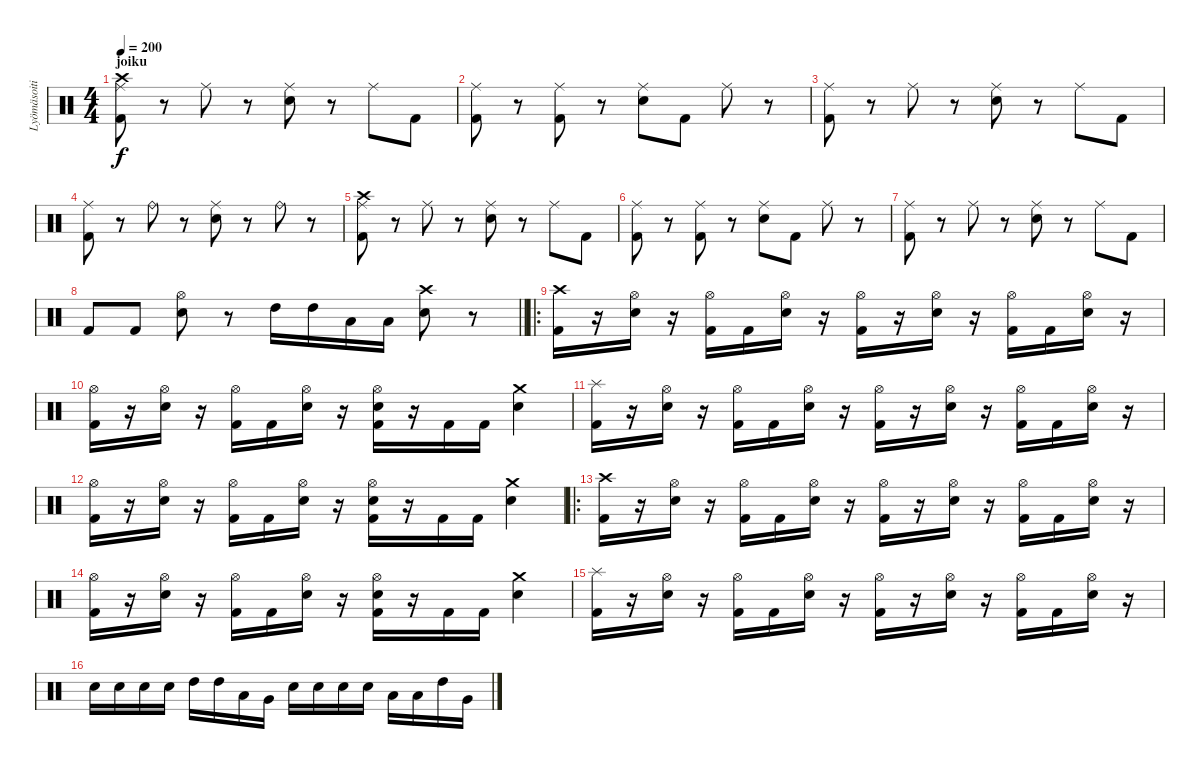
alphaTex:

\track ("Lyömäsoitin" "Lyömäsoiti") {instrument percussion}
\staff {score}
\articulation defaults
\ts (4 4)
\section ("" "joiku")
\tempo 200
\clef neutral
\ks c
("Crash high (hit)" "Ride (middle)" "Kick (hit) 2").8{dy f} r.8 "Ride (middle)".8 r.8 ("Electric Snare (hit)" "Ride (middle)").8 r.8 "Ride (middle)".8 "Kick (hit) 2".8 |
("Ride (middle)" "Kick (hit) 2").8 r.8 ("Ride (middle)" "Kick (hit) 2").8 r.8 ("Electric Snare (hit)" "Ride (middle)").8 "Kick (hit) 2".8 "Ride (middle)".8 r.8 |
("Ride (middle)" "Kick (hit) 2").8 r.8 "Ride (middle)".8 r.8 ("Electric Snare (hit)" "Ride (middle)").8 r.8 "Ride (middle)".8 "Kick (hit) 2".8 |
("Ride (middle)" "Kick (hit) 2").8 r.8 "Ride (bell)".8 r.8 ("Electric Snare (hit)" "Ride (middle)").8 r.8 "Ride (bell)".8 r.8 |
("Crash high (hit)" "Ride (middle)" "Kick (hit) 2").8 r.8 "Ride (middle)".8 r.8 ("Electric Snare (hit)" "Ride (middle)").8 r.8 "Ride (middle)".8 "Kick (hit) 2".8 |
("Ride (middle)" "Kick (hit) 2").8 r.8 ("Ride (middle)" "Kick (hit) 2").8 r.8 ("Electric Snare (hit)" "Ride (middle)").8 "Kick (hit) 2".8 "Ride (middle)".8 r.8 |
("Ride (middle)" "Kick (hit) 2").8 r.8 "Ride (middle)".8 r.8 ("Electric Snare (hit)" "Ride (middle)").8 r.8 "Ride (middle)".8 "Kick (hit) 2".8 |
\barLineRight lightlight "Kick (hit) 2".8 "Kick (hit) 2".8
("Hi-Hat (open)" "Electric Snare (hit)").8 r.8 "High Tom (hit)".16 "High Tom (hit)".16 "Low Tom (hit)".16 "Low Tom (hit)".16 ("Crash high (hit)" "Electric Snare (hit)").8 r.8 |
\ro
("Crash high (hit)" "Kick (hit) 2").16 r.16 ("Hi-Hat (open)" "Electric Snare (hit)").16 r.16 ("Hi-Hat (open)" "Kick (hit) 2").16 "Kick (hit) 2".16 ("Hi-Hat (open)" "Electric Snare (hit)").16 r.16 ("Hi-Hat (open)" "Kick (hit) 2").16 r.16 ("Hi-Hat (open)" "Electric Snare (hit)").16 r.16 ("Hi-Hat (open)" "Kick (hit) 2").16 "Kick (hit) 2".16 ("Hi-Hat (open)" "Electric Snare (hit)").16 r.16 |
("Hi-Hat (open)" "Kick (hit) 2").16 r.16 ("Hi-Hat (open)" "Electric Snare (hit)").16 r.16 ("Hi-Hat (open)" "Kick (hit) 2").16 "Kick (hit) 2".16 ("Hi-Hat (open)" "Electric Snare (hit)").16 r.16 ("Hi-Hat (open)" "Electric Snare (hit)" "Kick (hit) 2").16 r.16 "Kick (hit) 2".16 "Kick (hit) 2".16 ("Crash medium (hit)" "Electric Snare (hit)").4 |
("Splash (hit)" "Kick (hit) 2").16 r.16 ("Hi-Hat (open)" "Electric Snare (hit)").16 r.16 ("Hi-Hat (open)" "Kick (hit) 2").16 "Kick (hit) 2".16 ("Hi-Hat (open)" "Electric Snare (hit)").16 r.16 ("Hi-Hat (open)" "Kick (hit) 2").16 r.16 ("Hi-Hat (open)" "Electric Snare (hit)").16 r.16 ("Hi-Hat (open)" "Kick (hit) 2").16 "Kick (hit) 2".16 ("Hi-Hat (open)" "Electric Snare (hit)").16 r.16 |
("Hi-Hat (open)" "Kick (hit) 2").16 r.16 ("Hi-Hat (open)" "Electric Snare (hit)").16 r.16 ("Hi-Hat (open)" "Kick (hit) 2").16 "Kick (hit) 2".16 ("Hi-Hat (open)" "Electric Snare (hit)").16 r.16 ("Hi-Hat (open)" "Electric Snare (hit)" "Kick (hit) 2").16 r.16 "Kick (hit) 2".16 "Kick (hit) 2".16 ("Crash medium (hit)" "Electric Snare (hit)").4 |
\ro
("Crash high (hit)" "Kick (hit) 2").16 r.16 ("Hi-Hat (open)" "Electric Snare (hit)").16 r.16 ("Hi-Hat (open)" "Kick (hit) 2").16 "Kick (hit) 2".16 ("Hi-Hat (open)" "Electric Snare (hit)").16 r.16 ("Hi-Hat (open)" "Kick (hit) 2").16 r.16 ("Hi-Hat (open)" "Electric Snare (hit)").16 r.16 ("Hi-Hat (open)" "Kick (hit) 2").16 "Kick (hit) 2".16 ("Hi-Hat (open)" "Electric Snare (hit)").16 r.16 |
("Hi-Hat (open)" "Kick (hit) 2").16 r.16 ("Hi-Hat (open)" "Electric Snare (hit)").16 r.16 ("Hi-Hat (open)" "Kick (hit) 2").16 "Kick (hit) 2".16 ("Hi-Hat (open)" "Electric Snare (hit)").16 r.16 ("Hi-Hat (open)" "Electric Snare (hit)" "Kick (hit) 2").16 r.16 "Kick (hit) 2".16 "Kick (hit) 2".16 ("Crash medium (hit)" "Electric Snare (hit)").4 |
("Splash (hit)" "Kick (hit) 2").16 r.16 ("Hi-Hat (open)" "Electric Snare (hit)").16 r.16 ("Hi-Hat (open)" "Kick (hit) 2").16 "Kick (hit) 2".16 ("Hi-Hat (open)" "Electric Snare (hit)").16 r.16 ("Hi-Hat (open)" "Kick (hit) 2").16 r.16 ("Hi-Hat (open)" "Electric Snare (hit)").16 r.16 ("Hi-Hat (open)" "Kick (hit) 2").16 "Kick (hit) 2".16 ("Hi-Hat (open)" "Electric Snare (hit)").16 r.16 |
"Electric Snare (hit)".16 "Electric Snare (hit)".16 "Electric Snare (hit)".16 "Electric Snare (hit)".16 "High Tom (hit)".16 "High Tom (hit)".16 "Low Tom (hit)".16 "Very Low Tom (hit)".16 "Electric Snare (hit)".16 "Electric Snare (hit)".16 "Electric Snare (hit)".16 "Electric Snare (hit)".16 "Low Tom (hit)".16 "Low Tom (hit)".16 "High Tom (hit)".16 "Very Low Tom (hit)".16
